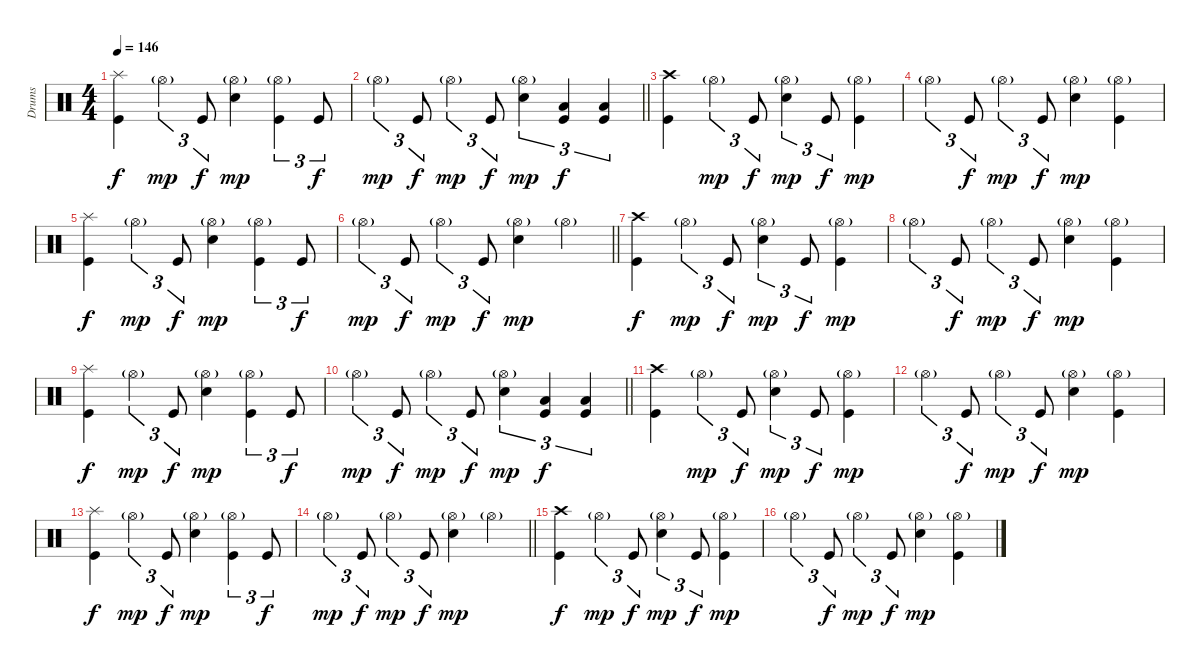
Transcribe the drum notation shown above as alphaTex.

\track ("Drums" "Drums") {instrument percussion}
\staff
\articulation defaults
\ts (4 4)
\tempo 146
\clef neutral
\ks c
("Splash (hit)" "Kick (hit)").4{dy f} "Hi-Hat (open)"{g}.4{tu (3 2) dy mp} "Kick (hit)".8{tu (3 2) dy f} ("Hi-Hat (open)"{g} "Electric Snare (hit)").4{dy mp} ("Hi-Hat (open)"{g} "Kick (hit)").4{tu (3 2)} "Kick (hit)".8{tu (3 2) dy f} |
\barLineRight lightlight "Hi-Hat (open)"{g}.4{tu (3 2) dy mp} "Kick (hit)".8{tu (3 2) dy f} "Hi-Hat (open)"{g}.4{tu (3 2) dy mp} "Kick (hit)".8{tu (3 2) dy f}
("Hi-Hat (open)"{g} "Electric Snare (hit)").4{tu (3 2) dy mp} ("Low Floor Tom (hit)" "Kick (hit)").4{tu (3 2) dy f} ("Low Floor Tom (hit)" "Kick (hit)").4{tu (3 2)} |
\section ("" "")
("Crash high (hit)" "Kick (hit)").4 "Hi-Hat (open)"{g}.4{tu (3 2) dy mp} "Kick (hit)".8{tu (3 2) dy f} ("Hi-Hat (open)"{g} "Electric Snare (hit)").4{tu (3 2) dy mp} "Kick (hit)".8{tu (3 2) dy f} ("Hi-Hat (open)"{g} "Kick (hit)").4{dy mp} |
"Hi-Hat (open)"{g}.4{tu (3 2)} "Kick (hit)".8{tu (3 2) dy f} "Hi-Hat (open)"{g}.4{tu (3 2) dy mp} "Kick (hit)".8{tu (3 2) dy f} ("Hi-Hat (open)"{g} "Electric Snare (hit)").4{dy mp} ("Hi-Hat (open)"{g} "Kick (hit)").4 |
("Splash (hit)" "Kick (hit)").4{dy f} "Hi-Hat (open)"{g}.4{tu (3 2) dy mp} "Kick (hit)".8{tu (3 2) dy f} ("Hi-Hat (open)"{g} "Electric Snare (hit)").4{dy mp} ("Hi-Hat (open)"{g} "Kick (hit)").4{tu (3 2)} "Kick (hit)".8{tu (3 2) dy f} |
\barLineRight lightlight "Hi-Hat (open)"{g}.4{tu (3 2) dy mp} "Kick (hit)".8{tu (3 2) dy f} "Hi-Hat (open)"{g}.4{tu (3 2) dy mp} "Kick (hit)".8{tu (3 2) dy f}
("Hi-Hat (open)"{g} "Electric Snare (hit)").4{dy mp} "Hi-Hat (open)"{g}.4 |
("Crash high (hit)" "Kick (hit)").4{dy f} "Hi-Hat (open)"{g}.4{tu (3 2) dy mp} "Kick (hit)".8{tu (3 2) dy f} ("Hi-Hat (open)"{g} "Electric Snare (hit)").4{tu (3 2) dy mp} "Kick (hit)".8{tu (3 2) dy f} ("Hi-Hat (open)"{g} "Kick (hit)").4{dy mp} |
"Hi-Hat (open)"{g}.4{tu (3 2)} "Kick (hit)".8{tu (3 2) dy f} "Hi-Hat (open)"{g}.4{tu (3 2) dy mp} "Kick (hit)".8{tu (3 2) dy f} ("Hi-Hat (open)"{g} "Electric Snare (hit)").4{dy mp} ("Hi-Hat (open)"{g} "Kick (hit)").4 |
("Splash (hit)" "Kick (hit)").4{dy f} "Hi-Hat (open)"{g}.4{tu (3 2) dy mp} "Kick (hit)".8{tu (3 2) dy f} ("Hi-Hat (open)"{g} "Electric Snare (hit)").4{dy mp} ("Hi-Hat (open)"{g} "Kick (hit)").4{tu (3 2)} "Kick (hit)".8{tu (3 2) dy f} |
\barLineRight lightlight "Hi-Hat (open)"{g}.4{tu (3 2) dy mp} "Kick (hit)".8{tu (3 2) dy f} "Hi-Hat (open)"{g}.4{tu (3 2) dy mp} "Kick (hit)".8{tu (3 2) dy f}
("Hi-Hat (open)"{g} "Electric Snare (hit)").4{tu (3 2) dy mp} ("Low Floor Tom (hit)" "Kick (hit)").4{tu (3 2) dy f} ("Low Floor Tom (hit)" "Kick (hit)").4{tu (3 2)} |
("Crash high (hit)" "Kick (hit)").4 "Hi-Hat (open)"{g}.4{tu (3 2) dy mp} "Kick (hit)".8{tu (3 2) dy f} ("Hi-Hat (open)"{g} "Electric Snare (hit)").4{tu (3 2) dy mp} "Kick (hit)".8{tu (3 2) dy f} ("Hi-Hat (open)"{g} "Kick (hit)").4{dy mp} |
"Hi-Hat (open)"{g}.4{tu (3 2)} "Kick (hit)".8{tu (3 2) dy f} "Hi-Hat (open)"{g}.4{tu (3 2) dy mp} "Kick (hit)".8{tu (3 2) dy f} ("Hi-Hat (open)"{g} "Electric Snare (hit)").4{dy mp} ("Hi-Hat (open)"{g} "Kick (hit)").4 |
("Splash (hit)" "Kick (hit)").4{dy f} "Hi-Hat (open)"{g}.4{tu (3 2) dy mp} "Kick (hit)".8{tu (3 2) dy f} ("Hi-Hat (open)"{g} "Electric Snare (hit)").4{dy mp} ("Hi-Hat (open)"{g} "Kick (hit)").4{tu (3 2)} "Kick (hit)".8{tu (3 2) dy f} |
\barLineRight lightlight "Hi-Hat (open)"{g}.4{tu (3 2) dy mp} "Kick (hit)".8{tu (3 2) dy f} "Hi-Hat (open)"{g}.4{tu (3 2) dy mp} "Kick (hit)".8{tu (3 2) dy f}
("Hi-Hat (open)"{g} "Electric Snare (hit)").4{dy mp} "Hi-Hat (open)"{g}.4 |
("Crash high (hit)" "Kick (hit)").4{dy f} "Hi-Hat (open)"{g}.4{tu (3 2) dy mp} "Kick (hit)".8{tu (3 2) dy f} ("Hi-Hat (open)"{g} "Electric Snare (hit)").4{tu (3 2) dy mp} "Kick (hit)".8{tu (3 2) dy f} ("Hi-Hat (open)"{g} "Kick (hit)").4{dy mp} |
"Hi-Hat (open)"{g}.4{tu (3 2)} "Kick (hit)".8{tu (3 2) dy f} "Hi-Hat (open)"{g}.4{tu (3 2) dy mp} "Kick (hit)".8{tu (3 2) dy f} ("Hi-Hat (open)"{g} "Electric Snare (hit)").4{dy mp} ("Hi-Hat (open)"{g} "Kick (hit)").4
